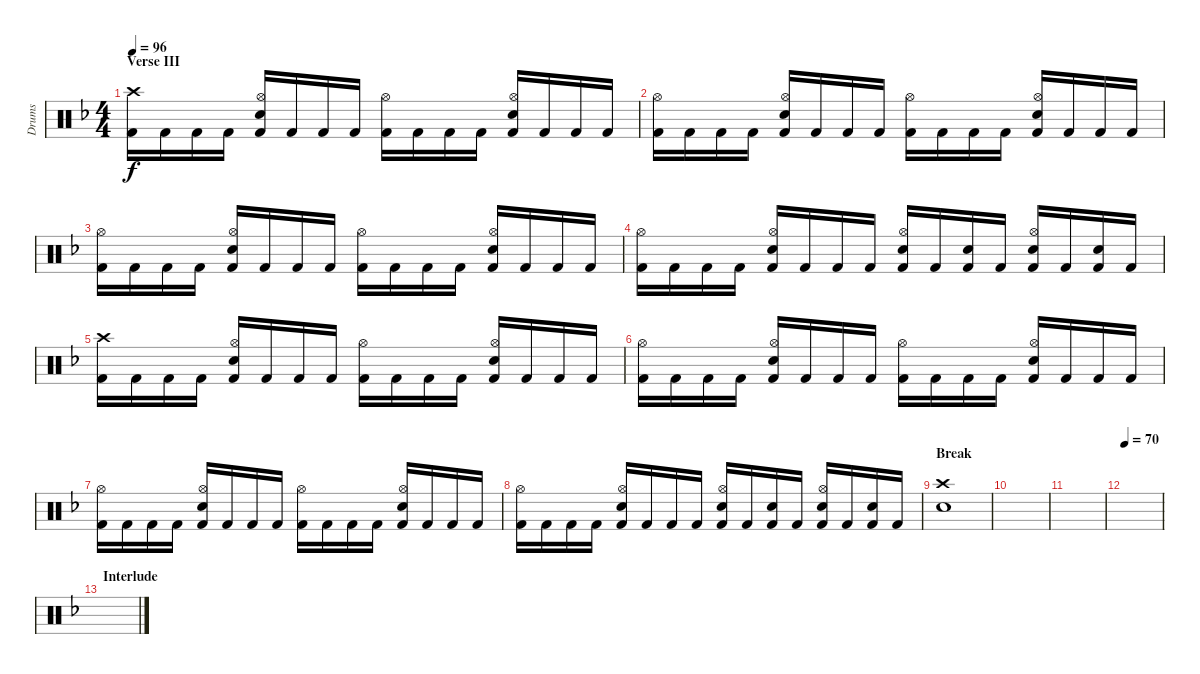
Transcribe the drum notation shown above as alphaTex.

\track ("Drums" "Drums") {instrument percussion}
\staff {score}
\articulation defaults
\ts (4 4)
\section ("" "Verse III")
\tempo 96
\clef neutral
\ks dminor
("Crash high (hit)" "Kick (hit) 2").16{dy f} "Kick (hit) 2".16 "Kick (hit) 2".16 "Kick (hit) 2".16 ("Hi-Hat (open)" "Snare (hit) 2" "Kick (hit) 2").16 "Kick (hit) 2".16 "Kick (hit) 2".16 "Kick (hit) 2".16 ("Hi-Hat (open)" "Kick (hit) 2").16 "Kick (hit) 2".16 "Kick (hit) 2".16 "Kick (hit) 2".16 ("Hi-Hat (open)" "Snare (hit) 2" "Kick (hit) 2").16 "Kick (hit) 2".16 "Kick (hit) 2".16 "Kick (hit) 2".16 |
("Hi-Hat (open)" "Kick (hit) 2").16 "Kick (hit) 2".16 "Kick (hit) 2".16 "Kick (hit) 2".16 ("Hi-Hat (open)" "Snare (hit) 2" "Kick (hit) 2").16 "Kick (hit) 2".16 "Kick (hit) 2".16 "Kick (hit) 2".16 ("Hi-Hat (open)" "Kick (hit) 2").16 "Kick (hit) 2".16 "Kick (hit) 2".16 "Kick (hit) 2".16 ("Hi-Hat (open)" "Snare (hit) 2" "Kick (hit) 2").16 "Kick (hit) 2".16 "Kick (hit) 2".16 "Kick (hit) 2".16 |
("Hi-Hat (open)" "Kick (hit) 2").16 "Kick (hit) 2".16 "Kick (hit) 2".16 "Kick (hit) 2".16 ("Hi-Hat (open)" "Snare (hit) 2" "Kick (hit) 2").16 "Kick (hit) 2".16 "Kick (hit) 2".16 "Kick (hit) 2".16 ("Hi-Hat (open)" "Kick (hit) 2").16 "Kick (hit) 2".16 "Kick (hit) 2".16 "Kick (hit) 2".16 ("Hi-Hat (open)" "Snare (hit) 2" "Kick (hit) 2").16 "Kick (hit) 2".16 "Kick (hit) 2".16 "Kick (hit) 2".16 |
("Hi-Hat (open)" "Kick (hit) 2").16 "Kick (hit) 2".16 "Kick (hit) 2".16 "Kick (hit) 2".16 ("Hi-Hat (open)" "Snare (hit) 2" "Kick (hit) 2").16 "Kick (hit) 2".16 "Kick (hit) 2".16 "Kick (hit) 2".16 ("Hi-Hat (open)" "Snare (hit) 2" "Kick (hit) 2").16 "Kick (hit) 2".16 ("Snare (hit) 2" "Kick (hit) 2").16 "Kick (hit) 2".16 ("Hi-Hat (open)" "Snare (hit) 2" "Kick (hit) 2").16 "Kick (hit) 2".16 ("Snare (hit) 2" "Kick (hit) 2").16 "Kick (hit) 2".16 |
("Crash high (hit)" "Kick (hit) 2").16 "Kick (hit) 2".16 "Kick (hit) 2".16 "Kick (hit) 2".16 ("Hi-Hat (open)" "Snare (hit) 2" "Kick (hit) 2").16 "Kick (hit) 2".16 "Kick (hit) 2".16 "Kick (hit) 2".16 ("Hi-Hat (open)" "Kick (hit) 2").16 "Kick (hit) 2".16 "Kick (hit) 2".16 "Kick (hit) 2".16 ("Hi-Hat (open)" "Snare (hit) 2" "Kick (hit) 2").16 "Kick (hit) 2".16 "Kick (hit) 2".16 "Kick (hit) 2".16 |
("Hi-Hat (open)" "Kick (hit) 2").16 "Kick (hit) 2".16 "Kick (hit) 2".16 "Kick (hit) 2".16 ("Hi-Hat (open)" "Snare (hit) 2" "Kick (hit) 2").16 "Kick (hit) 2".16 "Kick (hit) 2".16 "Kick (hit) 2".16 ("Hi-Hat (open)" "Kick (hit) 2").16 "Kick (hit) 2".16 "Kick (hit) 2".16 "Kick (hit) 2".16 ("Hi-Hat (open)" "Snare (hit) 2" "Kick (hit) 2").16 "Kick (hit) 2".16 "Kick (hit) 2".16 "Kick (hit) 2".16 |
("Hi-Hat (open)" "Kick (hit) 2").16 "Kick (hit) 2".16 "Kick (hit) 2".16 "Kick (hit) 2".16 ("Hi-Hat (open)" "Snare (hit) 2" "Kick (hit) 2").16 "Kick (hit) 2".16 "Kick (hit) 2".16 "Kick (hit) 2".16 ("Hi-Hat (open)" "Kick (hit) 2").16 "Kick (hit) 2".16 "Kick (hit) 2".16 "Kick (hit) 2".16 ("Hi-Hat (open)" "Snare (hit) 2" "Kick (hit) 2").16 "Kick (hit) 2".16 "Kick (hit) 2".16 "Kick (hit) 2".16 |
("Hi-Hat (open)" "Kick (hit) 2").16 "Kick (hit) 2".16 "Kick (hit) 2".16 "Kick (hit) 2".16 ("Hi-Hat (open)" "Snare (hit) 2" "Kick (hit) 2").16 "Kick (hit) 2".16 "Kick (hit) 2".16 "Kick (hit) 2".16 ("Hi-Hat (open)" "Snare (hit) 2" "Kick (hit) 2").16 "Kick (hit) 2".16 ("Snare (hit) 2" "Kick (hit) 2").16 "Kick (hit) 2".16 ("Hi-Hat (open)" "Snare (hit) 2" "Kick (hit) 2").16 "Kick (hit) 2".16 ("Snare (hit) 2" "Kick (hit) 2").16 "Kick (hit) 2".16 |
\section ("" "Break")
("Crash high (hit)" "Snare (hit) 2").1 |
|
|
\tempo 70
|
\section ("" "Interlude")
